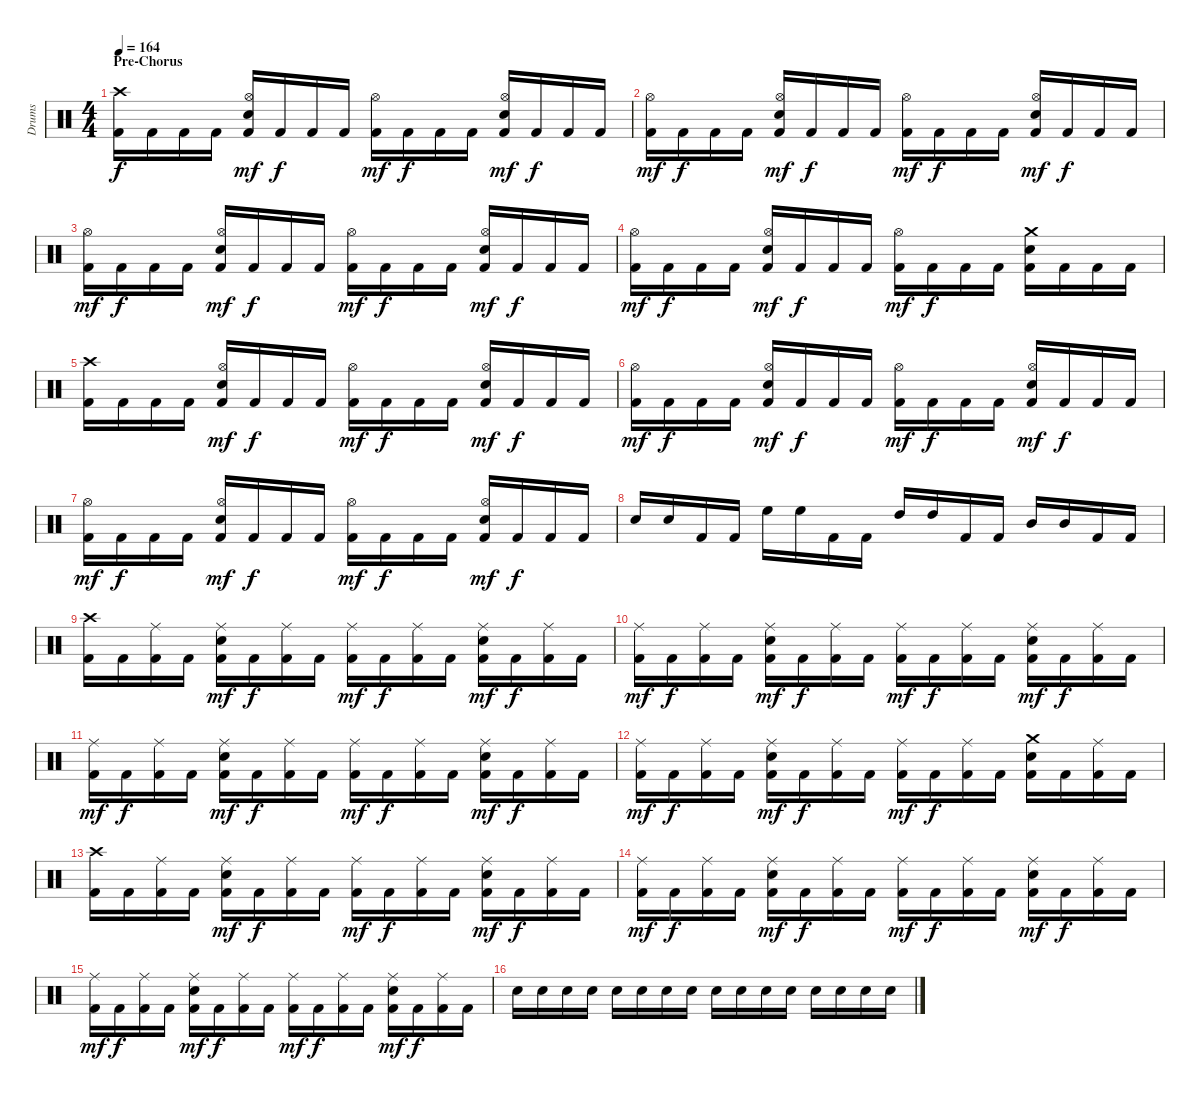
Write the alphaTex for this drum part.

\track ("Drums" "Drums") {instrument percussion}
\staff {score}
\articulation defaults
\ts (4 4)
\section ("" "Pre-Chorus")
\tempo 164
\clef neutral
\ks c
("Crash high (hit)" "Kick (hit) 2").16{dy f} "Kick (hit) 2".16 "Kick (hit) 2".16 "Kick (hit) 2".16 ("Hi-Hat (open)" "Electric Snare (hit)" "Kick (hit) 2").16{dy mf} "Kick (hit) 2".16{dy f} "Kick (hit) 2".16 "Kick (hit) 2".16 ("Hi-Hat (open)" "Kick (hit) 2").16{dy mf} "Kick (hit) 2".16{dy f} "Kick (hit) 2".16 "Kick (hit) 2".16 ("Hi-Hat (open)" "Electric Snare (hit)" "Kick (hit) 2").16{dy mf} "Kick (hit) 2".16{dy f} "Kick (hit) 2".16 "Kick (hit) 2".16 |
("Hi-Hat (open)" "Kick (hit) 2").16{dy mf} "Kick (hit) 2".16{dy f} "Kick (hit) 2".16 "Kick (hit) 2".16 ("Hi-Hat (open)" "Electric Snare (hit)" "Kick (hit) 2").16{dy mf} "Kick (hit) 2".16{dy f} "Kick (hit) 2".16 "Kick (hit) 2".16 ("Hi-Hat (open)" "Kick (hit) 2").16{dy mf} "Kick (hit) 2".16{dy f} "Kick (hit) 2".16 "Kick (hit) 2".16 ("Hi-Hat (open)" "Electric Snare (hit)" "Kick (hit) 2").16{dy mf} "Kick (hit) 2".16{dy f} "Kick (hit) 2".16 "Kick (hit) 2".16 |
("Hi-Hat (open)" "Kick (hit) 2").16{dy mf} "Kick (hit) 2".16{dy f} "Kick (hit) 2".16 "Kick (hit) 2".16 ("Hi-Hat (open)" "Electric Snare (hit)" "Kick (hit) 2").16{dy mf} "Kick (hit) 2".16{dy f} "Kick (hit) 2".16 "Kick (hit) 2".16 ("Hi-Hat (open)" "Kick (hit) 2").16{dy mf} "Kick (hit) 2".16{dy f} "Kick (hit) 2".16 "Kick (hit) 2".16 ("Hi-Hat (open)" "Electric Snare (hit)" "Kick (hit) 2").16{dy mf} "Kick (hit) 2".16{dy f} "Kick (hit) 2".16 "Kick (hit) 2".16 |
("Hi-Hat (open)" "Kick (hit) 2").16{dy mf} "Kick (hit) 2".16{dy f} "Kick (hit) 2".16 "Kick (hit) 2".16 ("Hi-Hat (open)" "Electric Snare (hit)" "Kick (hit) 2").16{dy mf} "Kick (hit) 2".16{dy f} "Kick (hit) 2".16 "Kick (hit) 2".16 ("Hi-Hat (open)" "Kick (hit) 2").16{dy mf} "Kick (hit) 2".16{dy f} "Kick (hit) 2".16 "Kick (hit) 2".16 ("Crash medium (hit)" "Electric Snare (hit)" "Kick (hit) 2").16 "Kick (hit) 2".16 "Kick (hit) 2".16 "Kick (hit) 2".16 |
("Crash high (hit)" "Kick (hit) 2").16 "Kick (hit) 2".16 "Kick (hit) 2".16 "Kick (hit) 2".16 ("Hi-Hat (open)" "Electric Snare (hit)" "Kick (hit) 2").16{dy mf} "Kick (hit) 2".16{dy f} "Kick (hit) 2".16 "Kick (hit) 2".16 ("Hi-Hat (open)" "Kick (hit) 2").16{dy mf} "Kick (hit) 2".16{dy f} "Kick (hit) 2".16 "Kick (hit) 2".16 ("Hi-Hat (open)" "Electric Snare (hit)" "Kick (hit) 2").16{dy mf} "Kick (hit) 2".16{dy f} "Kick (hit) 2".16 "Kick (hit) 2".16 |
("Hi-Hat (open)" "Kick (hit) 2").16{dy mf} "Kick (hit) 2".16{dy f} "Kick (hit) 2".16 "Kick (hit) 2".16 ("Hi-Hat (open)" "Electric Snare (hit)" "Kick (hit) 2").16{dy mf} "Kick (hit) 2".16{dy f} "Kick (hit) 2".16 "Kick (hit) 2".16 ("Hi-Hat (open)" "Kick (hit) 2").16{dy mf} "Kick (hit) 2".16{dy f} "Kick (hit) 2".16 "Kick (hit) 2".16 ("Hi-Hat (open)" "Electric Snare (hit)" "Kick (hit) 2").16{dy mf} "Kick (hit) 2".16{dy f} "Kick (hit) 2".16 "Kick (hit) 2".16 |
("Hi-Hat (open)" "Kick (hit) 2").16{dy mf} "Kick (hit) 2".16{dy f} "Kick (hit) 2".16 "Kick (hit) 2".16 ("Hi-Hat (open)" "Electric Snare (hit)" "Kick (hit) 2").16{dy mf} "Kick (hit) 2".16{dy f} "Kick (hit) 2".16 "Kick (hit) 2".16 ("Hi-Hat (open)" "Kick (hit) 2").16{dy mf} "Kick (hit) 2".16{dy f} "Kick (hit) 2".16 "Kick (hit) 2".16 ("Hi-Hat (open)" "Electric Snare (hit)" "Kick (hit) 2").16{dy mf} "Kick (hit) 2".16{dy f} "Kick (hit) 2".16 "Kick (hit) 2".16 |
"Electric Snare (hit)".16 "Electric Snare (hit)".16 "Kick (hit) 2".16 "Kick (hit) 2".16 "High Floor Tom (hit)".16 "High Floor Tom (hit)".16 "Kick (hit) 2".16 "Kick (hit) 2".16 "High Tom (hit)".16 "High Tom (hit)".16 "Kick (hit) 2".16 "Kick (hit) 2".16 "Mid Tom (hit)".16 "Mid Tom (hit)".16 "Kick (hit) 2".16 "Kick (hit) 2".16 |
("Crash high (hit)" "Kick (hit) 2").16 "Kick (hit) 2".16 ("Ride (middle)" "Kick (hit) 2").16 "Kick (hit) 2".16 ("Ride (middle)" "Electric Snare (hit)" "Kick (hit) 2").16{dy mf} "Kick (hit) 2".16{dy f} ("Ride (middle)" "Kick (hit) 2").16 "Kick (hit) 2".16 ("Ride (middle)" "Kick (hit) 2").16{dy mf} "Kick (hit) 2".16{dy f} ("Ride (middle)" "Kick (hit) 2").16 "Kick (hit) 2".16 ("Ride (middle)" "Electric Snare (hit)" "Kick (hit) 2").16{dy mf} "Kick (hit) 2".16{dy f} ("Ride (middle)" "Kick (hit) 2").16 "Kick (hit) 2".16 |
("Ride (middle)" "Kick (hit) 2").16{dy mf} "Kick (hit) 2".16{dy f} ("Ride (middle)" "Kick (hit) 2").16 "Kick (hit) 2".16 ("Ride (middle)" "Electric Snare (hit)" "Kick (hit) 2").16{dy mf} "Kick (hit) 2".16{dy f} ("Ride (middle)" "Kick (hit) 2").16 "Kick (hit) 2".16 ("Ride (middle)" "Kick (hit) 2").16{dy mf} "Kick (hit) 2".16{dy f} ("Ride (middle)" "Kick (hit) 2").16 "Kick (hit) 2".16 ("Ride (middle)" "Electric Snare (hit)" "Kick (hit) 2").16{dy mf} "Kick (hit) 2".16{dy f} ("Ride (middle)" "Kick (hit) 2").16 "Kick (hit) 2".16 |
("Ride (middle)" "Kick (hit) 2").16{dy mf} "Kick (hit) 2".16{dy f} ("Ride (middle)" "Kick (hit) 2").16 "Kick (hit) 2".16 ("Ride (middle)" "Electric Snare (hit)" "Kick (hit) 2").16{dy mf} "Kick (hit) 2".16{dy f} ("Ride (middle)" "Kick (hit) 2").16 "Kick (hit) 2".16 ("Ride (middle)" "Kick (hit) 2").16{dy mf} "Kick (hit) 2".16{dy f} ("Ride (middle)" "Kick (hit) 2").16 "Kick (hit) 2".16 ("Ride (middle)" "Electric Snare (hit)" "Kick (hit) 2").16{dy mf} "Kick (hit) 2".16{dy f} ("Ride (middle)" "Kick (hit) 2").16 "Kick (hit) 2".16 |
("Ride (middle)" "Kick (hit) 2").16{dy mf} "Kick (hit) 2".16{dy f} ("Ride (middle)" "Kick (hit) 2").16 "Kick (hit) 2".16 ("Ride (middle)" "Electric Snare (hit)" "Kick (hit) 2").16{dy mf} "Kick (hit) 2".16{dy f} ("Ride (middle)" "Kick (hit) 2").16 "Kick (hit) 2".16 ("Ride (middle)" "Kick (hit) 2").16{dy mf} "Kick (hit) 2".16{dy f} ("Ride (middle)" "Kick (hit) 2").16 "Kick (hit) 2".16 ("Crash medium (hit)" "Electric Snare (hit)" "Kick (hit) 2").16 "Kick (hit) 2".16 ("Ride (middle)" "Kick (hit) 2").16 "Kick (hit) 2".16 |
("Crash high (hit)" "Kick (hit) 2").16 "Kick (hit) 2".16 ("Ride (middle)" "Kick (hit) 2").16 "Kick (hit) 2".16 ("Ride (middle)" "Electric Snare (hit)" "Kick (hit) 2").16{dy mf} "Kick (hit) 2".16{dy f} ("Ride (middle)" "Kick (hit) 2").16 "Kick (hit) 2".16 ("Ride (middle)" "Kick (hit) 2").16{dy mf} "Kick (hit) 2".16{dy f} ("Ride (middle)" "Kick (hit) 2").16 "Kick (hit) 2".16 ("Ride (middle)" "Electric Snare (hit)" "Kick (hit) 2").16{dy mf} "Kick (hit) 2".16{dy f} ("Ride (middle)" "Kick (hit) 2").16 "Kick (hit) 2".16 |
("Ride (middle)" "Kick (hit) 2").16{dy mf} "Kick (hit) 2".16{dy f} ("Ride (middle)" "Kick (hit) 2").16 "Kick (hit) 2".16 ("Ride (middle)" "Electric Snare (hit)" "Kick (hit) 2").16{dy mf} "Kick (hit) 2".16{dy f} ("Ride (middle)" "Kick (hit) 2").16 "Kick (hit) 2".16 ("Ride (middle)" "Kick (hit) 2").16{dy mf} "Kick (hit) 2".16{dy f} ("Ride (middle)" "Kick (hit) 2").16 "Kick (hit) 2".16 ("Ride (middle)" "Electric Snare (hit)" "Kick (hit) 2").16{dy mf} "Kick (hit) 2".16{dy f} ("Ride (middle)" "Kick (hit) 2").16 "Kick (hit) 2".16 |
("Ride (middle)" "Kick (hit) 2").16{dy mf} "Kick (hit) 2".16{dy f} ("Ride (middle)" "Kick (hit) 2").16 "Kick (hit) 2".16 ("Ride (middle)" "Electric Snare (hit)" "Kick (hit) 2").16{dy mf} "Kick (hit) 2".16{dy f} ("Ride (middle)" "Kick (hit) 2").16 "Kick (hit) 2".16 ("Ride (middle)" "Kick (hit) 2").16{dy mf} "Kick (hit) 2".16{dy f} ("Ride (middle)" "Kick (hit) 2").16 "Kick (hit) 2".16 ("Ride (middle)" "Electric Snare (hit)" "Kick (hit) 2").16{dy mf} "Kick (hit) 2".16{dy f} ("Ride (middle)" "Kick (hit) 2").16 "Kick (hit) 2".16 |
"Electric Snare (hit)".16 "Electric Snare (hit)".16 "Electric Snare (hit)".16 "Electric Snare (hit)".16 "Electric Snare (hit)".16 "Electric Snare (hit)".16 "Electric Snare (hit)".16 "Electric Snare (hit)".16 "Electric Snare (hit)".16 "Electric Snare (hit)".16 "Electric Snare (hit)".16 "Electric Snare (hit)".16 "Electric Snare (hit)".16 "Electric Snare (hit)".16 "Electric Snare (hit)".16 "Electric Snare (hit)".16
